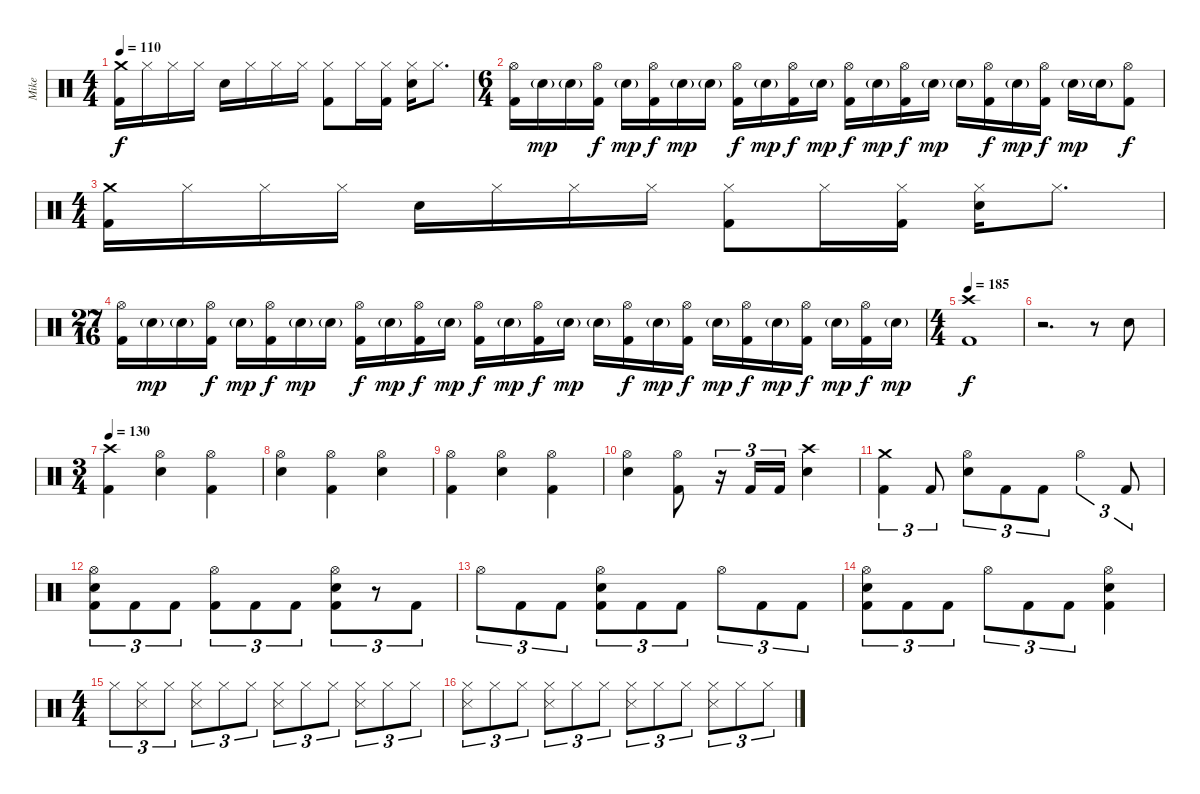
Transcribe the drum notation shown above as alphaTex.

\track ("Mike" "Mike") {instrument percussion}
\staff {score}
\articulation defaults
\ts (4 4)
\tempo 110
\clef neutral
\ks c
("Kick (hit) 2" "Crash medium (hit)").16{dy f} "Hi-Hat (closed)".16 "Hi-Hat (closed)".16 "Hi-Hat (closed)".16 "Electric Snare (hit)".16 "Hi-Hat (closed)".16 "Hi-Hat (closed)".16 "Hi-Hat (closed)".16 ("Kick (hit) 2" "Hi-Hat (closed)").8 "Hi-Hat (closed)".16 ("Kick (hit) 2" "Hi-Hat (closed)").16 ("Electric Snare (hit)" "Hi-Hat (closed)").16 "Hi-Hat (closed)".8{d} |
\ts (6 4)
("Kick (hit) 2" "Hi-Hat (open)").16 "Electric Snare (hit)"{g}.16{dy mp} "Electric Snare (hit)"{g}.16 ("Kick (hit) 2" "Hi-Hat (open)").16{dy f} "Electric Snare (hit)"{g}.16{dy mp} ("Kick (hit) 2" "Hi-Hat (open)").16{dy f} "Electric Snare (hit)"{g}.16{dy mp} "Electric Snare (hit)"{g}.16 ("Kick (hit) 2" "Hi-Hat (open)").16{dy f} "Electric Snare (hit)"{g}.16{dy mp} ("Kick (hit) 2" "Hi-Hat (open)").16{dy f} "Electric Snare (hit)"{g}.16{dy mp} ("Kick (hit) 2" "Hi-Hat (open)").16{dy f} "Electric Snare (hit)"{g}.16{dy mp} ("Kick (hit) 2" "Hi-Hat (open)").16{dy f} "Electric Snare (hit)"{g}.16{dy mp} "Electric Snare (hit)"{g}.16 ("Kick (hit) 2" "Hi-Hat (open)").16{dy f} "Electric Snare (hit)"{g}.16{dy mp} ("Kick (hit) 2" "Hi-Hat (open)").16{dy f} "Electric Snare (hit)"{g}.16{dy mp} "Electric Snare (hit)"{g}.16 ("Kick (hit) 2" "Hi-Hat (open)").8{dy f} |
\ts (4 4)
("Kick (hit) 2" "Crash medium (hit)").16 "Hi-Hat (closed)".16 "Hi-Hat (closed)".16 "Hi-Hat (closed)".16 "Electric Snare (hit)".16 "Hi-Hat (closed)".16 "Hi-Hat (closed)".16 "Hi-Hat (closed)".16 ("Kick (hit) 2" "Hi-Hat (closed)").8 "Hi-Hat (closed)".16 ("Kick (hit) 2" "Hi-Hat (closed)").16 ("Electric Snare (hit)" "Hi-Hat (closed)").16 "Hi-Hat (closed)".8{d} |
\ts (27 16)
("Kick (hit) 2" "Hi-Hat (open)").16 "Electric Snare (hit)"{g}.16{dy mp} "Electric Snare (hit)"{g}.16 ("Kick (hit) 2" "Hi-Hat (open)").16{dy f} "Electric Snare (hit)"{g}.16{dy mp} ("Kick (hit) 2" "Hi-Hat (open)").16{dy f} "Electric Snare (hit)"{g}.16{dy mp} "Electric Snare (hit)"{g}.16 ("Kick (hit) 2" "Hi-Hat (open)").16{dy f} "Electric Snare (hit)"{g}.16{dy mp} ("Kick (hit) 2" "Hi-Hat (open)").16{dy f} "Electric Snare (hit)"{g}.16{dy mp} ("Kick (hit) 2" "Hi-Hat (open)").16{dy f} "Electric Snare (hit)"{g}.16{dy mp} ("Kick (hit) 2" "Hi-Hat (open)").16{dy f} "Electric Snare (hit)"{g}.16{dy mp} "Electric Snare (hit)"{g}.16 ("Kick (hit) 2" "Hi-Hat (open)").16{dy f} "Electric Snare (hit)"{g}.16{dy mp} ("Kick (hit) 2" "Hi-Hat (open)").16{dy f} "Electric Snare (hit)"{g}.16{dy mp} ("Kick (hit) 2" "Hi-Hat (open)").16{dy f} "Electric Snare (hit)"{g}.16{dy mp} ("Kick (hit) 2" "Hi-Hat (open)").16{dy f} "Electric Snare (hit)"{g}.16{dy mp} ("Kick (hit) 2" "Hi-Hat (open)").16{dy f} "Electric Snare (hit)"{g}.16{dy mp} |
\ts (4 4)
\tempo 185
("Kick (hit) 2" "Crash high (hit)").1{dy f} |
r.2{d} r.8 "Electric Snare (hit)".8 |
\ts (3 4)
\tempo 130
("Kick (hit) 2" "Crash high (hit)").4 ("Electric Snare (hit)" "Hi-Hat (open)").4 ("Kick (hit) 2" "Hi-Hat (open)").4 |
("Electric Snare (hit)" "Hi-Hat (open)").4 ("Kick (hit) 2" "Hi-Hat (open)").4 ("Electric Snare (hit)" "Hi-Hat (open)").4 |
("Kick (hit) 2" "Hi-Hat (open)").4 ("Electric Snare (hit)" "Hi-Hat (open)").4 ("Kick (hit) 2" "Hi-Hat (open)").4 |
("Electric Snare (hit)" "Hi-Hat (open)").4 ("Kick (hit) 2" "Hi-Hat (open)").8 r.16{tu (3 2)} "Kick (hit) 2".16{tu (3 2)} "Kick (hit) 2".16{tu (3 2)} ("Electric Snare (hit)" "Crash high (hit)").4 |
("Kick (hit) 2" "Crash medium (hit)").4{tu (3 2)} "Kick (hit) 2".8{tu (3 2)} ("Electric Snare (hit)" "Hi-Hat (open)").8{tu (3 2)} "Kick (hit) 2".8{tu (3 2)} "Kick (hit) 2".8{tu (3 2)} "Hi-Hat (open)".4{tu (3 2)} "Kick (hit) 2".8{tu (3 2)} |
("Kick (hit) 2" "Electric Snare (hit)" "Hi-Hat (open)").8{tu (3 2)} "Kick (hit) 2".8{tu (3 2)} "Kick (hit) 2".8{tu (3 2)} ("Kick (hit) 2" "Hi-Hat (open)").8{tu (3 2)} "Kick (hit) 2".8{tu (3 2)} "Kick (hit) 2".8{tu (3 2)} ("Kick (hit) 2" "Electric Snare (hit)" "Hi-Hat (open)").8{tu (3 2)} r.8{tu (3 2)} "Kick (hit) 2".8{tu (3 2)} |
"Hi-Hat (open)".8{tu (3 2)} "Kick (hit) 2".8{tu (3 2)} "Kick (hit) 2".8{tu (3 2)} ("Kick (hit) 2" "Electric Snare (hit)" "Hi-Hat (open)").8{tu (3 2)} "Kick (hit) 2".8{tu (3 2)} "Kick (hit) 2".8{tu (3 2)} "Hi-Hat (open)".8{tu (3 2)} "Kick (hit) 2".8{tu (3 2)} "Kick (hit) 2".8{tu (3 2)} |
("Kick (hit) 2" "Electric Snare (hit)" "Hi-Hat (open)").8{tu (3 2)} "Kick (hit) 2".8{tu (3 2)} "Kick (hit) 2".8{tu (3 2)} "Hi-Hat (open)".8{tu (3 2)} "Kick (hit) 2".8{tu (3 2)} "Kick (hit) 2".8{tu (3 2)} ("Kick (hit) 2" "Electric Snare (hit)" "Hi-Hat (open)").4 |
\ts (4 4)
"Hi-Hat (closed)".8{tu (3 2)} ("Snare (side stick) 3" "Hi-Hat (closed)").8{tu (3 2)} "Hi-Hat (closed)".8{tu (3 2)} ("Snare (side stick) 3" "Hi-Hat (closed)").8{tu (3 2)} "Hi-Hat (closed)".8{tu (3 2)} "Hi-Hat (closed)".8{tu (3 2)} ("Snare (side stick) 3" "Hi-Hat (closed)").8{tu (3 2)} "Hi-Hat (closed)".8{tu (3 2)} "Hi-Hat (closed)".8{tu (3 2)} ("Snare (side stick) 3" "Hi-Hat (closed)").8{tu (3 2)} "Hi-Hat (closed)".8{tu (3 2)} "Hi-Hat (closed)".8{tu (3 2)} |
("Snare (side stick) 3" "Hi-Hat (closed)").8{tu (3 2)} "Hi-Hat (closed)".8{tu (3 2)} "Hi-Hat (closed)".8{tu (3 2)} ("Snare (side stick) 3" "Hi-Hat (closed)").8{tu (3 2)} "Hi-Hat (closed)".8{tu (3 2)} "Hi-Hat (closed)".8{tu (3 2)} ("Snare (side stick) 3" "Hi-Hat (closed)").8{tu (3 2)} "Hi-Hat (closed)".8{tu (3 2)} "Hi-Hat (closed)".8{tu (3 2)} ("Snare (side stick) 3" "Hi-Hat (closed)").8{tu (3 2)} "Hi-Hat (closed)".8{tu (3 2)} "Hi-Hat (closed)".8{tu (3 2)}
